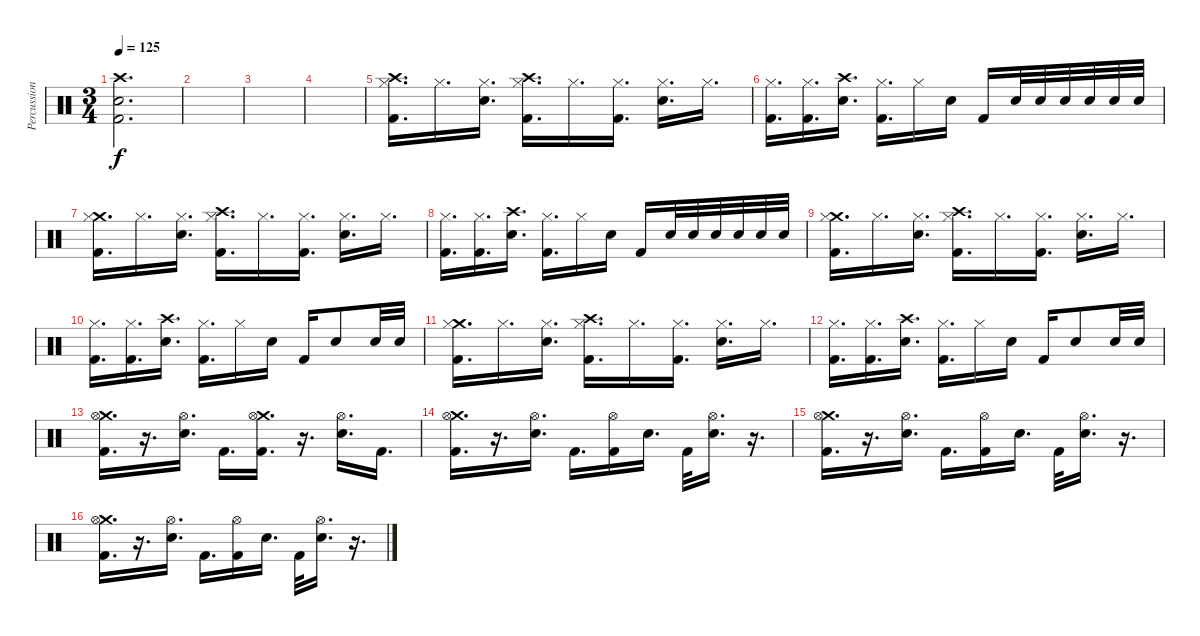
\track ("Percussion" "Percussion") {instrument percussion}
\staff {score}
\articulation defaults
\ts (3 4)
\tempo 125
\clef neutral
\ks c
("Crash high (hit)" "Electric Snare (hit)" "Kick (hit) 2").2{d dy f} |
|
|
|
("Crash high (hit)" "Hi-Hat (closed)" "Kick (hit) 2").16{d} "Hi-Hat (closed)".16{d} ("Hi-Hat (closed)" "Electric Snare (hit)").16{d} ("Crash high (hit)" "Hi-Hat (closed)" "Kick (hit) 2").16{d} "Hi-Hat (closed)".16{d} ("Hi-Hat (closed)" "Kick (hit) 2").16{d} ("Hi-Hat (closed)" "Electric Snare (hit)").16{d} "Hi-Hat (closed)".16{d} |
("Hi-Hat (closed)" "Kick (hit) 2").16{d} ("Hi-Hat (closed)" "Kick (hit) 2").16{d} ("Crash high (hit)" "Electric Snare (hit)").16{d} ("Hi-Hat (closed)" "Kick (hit) 2").16{d} "Hi-Hat (closed)".16 "Electric Snare (hit)".16 "Kick (hit) 2".16 "Electric Snare (hit)".32 "Electric Snare (hit)".32 "Electric Snare (hit)".32 "Electric Snare (hit)".32 "Electric Snare (hit)".32 "Electric Snare (hit)".32 |
("Crash medium (hit)" "Hi-Hat (closed)" "Kick (hit) 2").16{d} "Hi-Hat (closed)".16{d} ("Hi-Hat (closed)" "Electric Snare (hit)").16{d} ("Crash high (hit)" "Hi-Hat (closed)" "Kick (hit) 2").16{d} "Hi-Hat (closed)".16{d} ("Hi-Hat (closed)" "Kick (hit) 2").16{d} ("Hi-Hat (closed)" "Electric Snare (hit)").16{d} "Hi-Hat (closed)".16{d} |
("Hi-Hat (closed)" "Kick (hit) 2").16{d} ("Hi-Hat (closed)" "Kick (hit) 2").16{d} ("Crash high (hit)" "Electric Snare (hit)").16{d} ("Hi-Hat (closed)" "Kick (hit) 2").16{d} "Hi-Hat (closed)".16 "Electric Snare (hit)".16 "Kick (hit) 2".16 "Electric Snare (hit)".32 "Electric Snare (hit)".32 "Electric Snare (hit)".32 "Electric Snare (hit)".32 "Electric Snare (hit)".32 "Electric Snare (hit)".32 |
("Crash medium (hit)" "Hi-Hat (closed)" "Kick (hit) 2").16{d} "Hi-Hat (closed)".16{d} ("Hi-Hat (closed)" "Electric Snare (hit)").16{d} ("Crash high (hit)" "Hi-Hat (closed)" "Kick (hit) 2").16{d} "Hi-Hat (closed)".16{d} ("Hi-Hat (closed)" "Kick (hit) 2").16{d} ("Hi-Hat (closed)" "Electric Snare (hit)").16{d} "Hi-Hat (closed)".16{d} |
("Hi-Hat (closed)" "Kick (hit) 2").16{d} ("Hi-Hat (closed)" "Kick (hit) 2").16{d} ("Crash high (hit)" "Electric Snare (hit)").16{d} ("Hi-Hat (closed)" "Kick (hit) 2").16{d} "Hi-Hat (closed)".16 "Electric Snare (hit)".16 "Kick (hit) 2".16 "Electric Snare (hit)".8 "Electric Snare (hit)".32 "Electric Snare (hit)".32 |
("Crash medium (hit)" "Hi-Hat (closed)" "Kick (hit) 2").16{d} "Hi-Hat (closed)".16{d} ("Hi-Hat (closed)" "Electric Snare (hit)").16{d} ("Crash high (hit)" "Hi-Hat (closed)" "Kick (hit) 2").16{d} "Hi-Hat (closed)".16{d} ("Hi-Hat (closed)" "Kick (hit) 2").16{d} ("Hi-Hat (closed)" "Electric Snare (hit)").16{d} "Hi-Hat (closed)".16{d} |
("Hi-Hat (closed)" "Kick (hit) 2").16{d} ("Hi-Hat (closed)" "Kick (hit) 2").16{d} ("Crash high (hit)" "Electric Snare (hit)").16{d} ("Hi-Hat (closed)" "Kick (hit) 2").16{d} "Hi-Hat (closed)".16 "Electric Snare (hit)".16 "Kick (hit) 2".16 "Electric Snare (hit)".8 "Electric Snare (hit)".32 "Electric Snare (hit)".32 |
("Crash medium (hit)" "Hi-Hat (open)" "Kick (hit) 2").16{d} r.16{d} ("Hi-Hat (open)" "Electric Snare (hit)").16{d} "Kick (hit) 2".16{d} ("Crash medium (hit)" "Hi-Hat (open)" "Kick (hit) 2").16{d} r.16{d} ("Hi-Hat (open)" "Electric Snare (hit)").16{d} "Kick (hit) 2".16{d} |
("Crash medium (hit)" "Hi-Hat (open)" "Kick (hit) 2").16{d} r.16{d} ("Hi-Hat (open)" "Electric Snare (hit)").16{d} "Kick (hit) 2".16{d} ("Hi-Hat (open)" "Kick (hit) 2").16 "Electric Snare (hit)".16{d} "Kick (hit) 2".32 ("Hi-Hat (open)" "Electric Snare (hit)").16{d} r.16{d} |
("Crash medium (hit)" "Hi-Hat (open)" "Kick (hit) 2").16{d} r.16{d} ("Hi-Hat (open)" "Electric Snare (hit)").16{d} "Kick (hit) 2".16{d} ("Hi-Hat (open)" "Kick (hit) 2").16 "Electric Snare (hit)".16{d} "Kick (hit) 2".32 ("Hi-Hat (open)" "Electric Snare (hit)").16{d} r.16{d} |
("Crash medium (hit)" "Hi-Hat (open)" "Kick (hit) 2").16{d} r.16{d} ("Hi-Hat (open)" "Electric Snare (hit)").16{d} "Kick (hit) 2".16{d} ("Hi-Hat (open)" "Kick (hit) 2").16 "Electric Snare (hit)".16{d} "Kick (hit) 2".32 ("Hi-Hat (open)" "Electric Snare (hit)").16{d} r.16{d}
